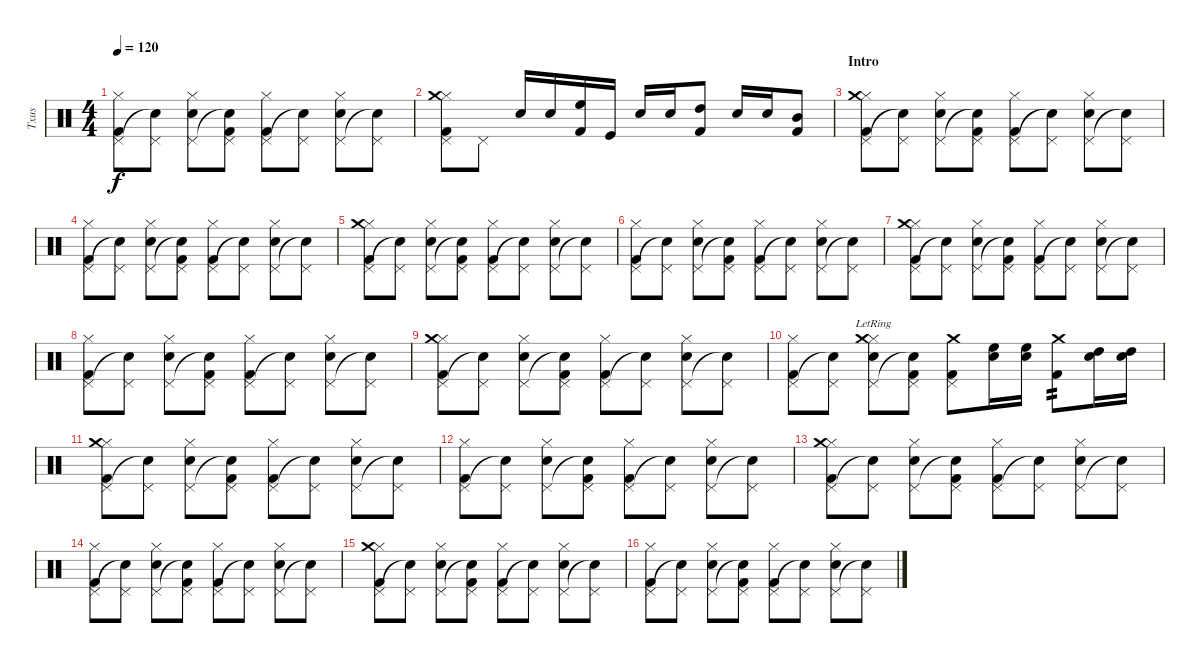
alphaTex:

\track ("Txus" "Txus") {instrument percussion}
\staff {score}
\articulation defaults
\ts (4 4)
\tempo 120
\clef neutral
\ks c
("Hi-Hat (closed)" "Pedal Hi-Hat (hit)" "Kick (hit) 2").8{dy f} ("Pedal Hi-Hat (hit)" "Snare (hit)"{t}).8 ("Hi-Hat (closed)" "Pedal Hi-Hat (hit)" "Snare (hit) 2").8 ("Pedal Hi-Hat (hit)" "Snare (hit)"{t} "Kick (hit) 2").8 ("Hi-Hat (closed)" "Pedal Hi-Hat (hit)" "Kick (hit) 2").8 ("Pedal Hi-Hat (hit)" "Snare (hit)"{t}).8 ("Hi-Hat (closed)" "Pedal Hi-Hat (hit)" "Snare (hit) 2").8 ("Pedal Hi-Hat (hit)" "Snare (hit) 2"{t}).8 |
("Hi-Hat (closed)" "Pedal Hi-Hat (hit)" "Crash medium (hit)" "Kick (hit) 2").8 "Pedal Hi-Hat (hit)".8 "Snare (hit) 2".16 "Snare (hit) 2".16 ("Kick (hit) 2" "High Floor Tom (hit)").16 "Kick (hit)".16 "Snare (hit) 2".16 "Snare (hit) 2".16 ("Kick (hit) 2" "High Tom (hit)").8 "Snare (hit) 2".16 "Snare (hit) 2".16 ("Kick (hit) 2" "Mid Tom (hit)").8 |
\section ("" "Intro")
("Hi-Hat (closed)" "Pedal Hi-Hat (hit)" "Crash medium (hit)" "Kick (hit) 2").8 ("Pedal Hi-Hat (hit)" "Snare (hit)"{t}).8 ("Hi-Hat (closed)" "Pedal Hi-Hat (hit)" "Snare (hit) 2").8 ("Pedal Hi-Hat (hit)" "Snare (hit)"{t} "Kick (hit) 2").8 ("Hi-Hat (closed)" "Pedal Hi-Hat (hit)" "Kick (hit) 2").8 ("Pedal Hi-Hat (hit)" "Snare (hit)"{t}).8 ("Hi-Hat (closed)" "Pedal Hi-Hat (hit)" "Snare (hit) 2").8 ("Pedal Hi-Hat (hit)" "Snare (hit) 2"{t}).8 |
("Hi-Hat (closed)" "Pedal Hi-Hat (hit)" "Kick (hit) 2").8 ("Pedal Hi-Hat (hit)" "Snare (hit)"{t}).8 ("Hi-Hat (closed)" "Pedal Hi-Hat (hit)" "Snare (hit) 2").8 ("Pedal Hi-Hat (hit)" "Snare (hit)"{t} "Kick (hit) 2").8 ("Hi-Hat (closed)" "Pedal Hi-Hat (hit)" "Kick (hit) 2").8 ("Pedal Hi-Hat (hit)" "Snare (hit)"{t}).8 ("Hi-Hat (closed)" "Pedal Hi-Hat (hit)" "Snare (hit) 2").8 ("Pedal Hi-Hat (hit)" "Snare (hit) 2"{t}).8 |
("Hi-Hat (closed)" "Pedal Hi-Hat (hit)" "Crash medium (hit)" "Kick (hit) 2").8 ("Pedal Hi-Hat (hit)" "Snare (hit)"{t}).8 ("Hi-Hat (closed)" "Pedal Hi-Hat (hit)" "Snare (hit) 2").8 ("Pedal Hi-Hat (hit)" "Snare (hit)"{t} "Kick (hit) 2").8 ("Hi-Hat (closed)" "Pedal Hi-Hat (hit)" "Kick (hit) 2").8 ("Pedal Hi-Hat (hit)" "Snare (hit)"{t}).8 ("Hi-Hat (closed)" "Pedal Hi-Hat (hit)" "Snare (hit) 2").8 ("Pedal Hi-Hat (hit)" "Snare (hit) 2"{t}).8 |
("Hi-Hat (closed)" "Pedal Hi-Hat (hit)" "Kick (hit) 2").8 ("Pedal Hi-Hat (hit)" "Snare (hit)"{t}).8 ("Hi-Hat (closed)" "Pedal Hi-Hat (hit)" "Snare (hit) 2").8 ("Pedal Hi-Hat (hit)" "Snare (hit)"{t} "Kick (hit) 2").8 ("Hi-Hat (closed)" "Pedal Hi-Hat (hit)" "Kick (hit) 2").8 ("Pedal Hi-Hat (hit)" "Snare (hit)"{t}).8 ("Hi-Hat (closed)" "Pedal Hi-Hat (hit)" "Snare (hit) 2").8 ("Pedal Hi-Hat (hit)" "Snare (hit) 2"{t}).8 |
("Hi-Hat (closed)" "Pedal Hi-Hat (hit)" "Crash medium (hit)" "Kick (hit) 2").8 ("Pedal Hi-Hat (hit)" "Snare (hit)"{t}).8 ("Hi-Hat (closed)" "Pedal Hi-Hat (hit)" "Snare (hit) 2").8 ("Pedal Hi-Hat (hit)" "Snare (hit)"{t} "Kick (hit) 2").8 ("Hi-Hat (closed)" "Pedal Hi-Hat (hit)" "Kick (hit) 2").8 ("Pedal Hi-Hat (hit)" "Snare (hit)"{t}).8 ("Hi-Hat (closed)" "Pedal Hi-Hat (hit)" "Snare (hit) 2").8 ("Pedal Hi-Hat (hit)" "Snare (hit) 2"{t}).8 |
("Hi-Hat (closed)" "Pedal Hi-Hat (hit)" "Kick (hit) 2").8 ("Pedal Hi-Hat (hit)" "Snare (hit)"{t}).8 ("Hi-Hat (closed)" "Pedal Hi-Hat (hit)" "Snare (hit) 2").8 ("Pedal Hi-Hat (hit)" "Snare (hit)"{t} "Kick (hit) 2").8 ("Hi-Hat (closed)" "Pedal Hi-Hat (hit)" "Kick (hit) 2").8 ("Pedal Hi-Hat (hit)" "Snare (hit)"{t}).8 ("Hi-Hat (closed)" "Pedal Hi-Hat (hit)" "Snare (hit) 2").8 ("Pedal Hi-Hat (hit)" "Snare (hit) 2"{t}).8 |
("Hi-Hat (closed)" "Pedal Hi-Hat (hit)" "Crash medium (hit)" "Kick (hit) 2").8 ("Pedal Hi-Hat (hit)" "Snare (hit)"{t}).8 ("Hi-Hat (closed)" "Pedal Hi-Hat (hit)" "Snare (hit) 2").8 ("Pedal Hi-Hat (hit)" "Snare (hit)"{t} "Kick (hit) 2").8 ("Hi-Hat (closed)" "Pedal Hi-Hat (hit)" "Kick (hit) 2").8 ("Pedal Hi-Hat (hit)" "Snare (hit)"{t}).8 ("Hi-Hat (closed)" "Pedal Hi-Hat (hit)" "Snare (hit) 2").8 ("Pedal Hi-Hat (hit)" "Snare (hit) 2"{t}).8 |
("Hi-Hat (closed)" "Pedal Hi-Hat (hit)" "Kick (hit) 2").8 ("Pedal Hi-Hat (hit)" "Snare (hit)"{t}).8 ("Hi-Hat (closed)" "Pedal Hi-Hat (hit)" "Snare (hit) 2" "Crash medium (hit)"{lr}).8 ("Pedal Hi-Hat (hit)" "Snare (hit)"{t} "Kick (hit) 2").8 ("Crash medium (hit)" "Pedal Hi-Hat (hit)" "Kick (hit) 2").8 ("High Floor Tom (hit)" "Snare (hit) 2").16 ("High Floor Tom (hit)" "Snare (hit) 2").16 ("Crash medium (hit)" "Kick (hit) 2").8{tp 2} ("High Tom (hit)" "Snare (hit) 2").16 ("High Tom (hit)" "Snare (hit) 2").16 |
("Hi-Hat (closed)" "Pedal Hi-Hat (hit)" "Crash medium (hit)" "Kick (hit) 2").8 ("Pedal Hi-Hat (hit)" "Snare (hit)"{t}).8 ("Hi-Hat (closed)" "Pedal Hi-Hat (hit)" "Snare (hit) 2").8 ("Pedal Hi-Hat (hit)" "Snare (hit)"{t} "Kick (hit) 2").8 ("Hi-Hat (closed)" "Pedal Hi-Hat (hit)" "Kick (hit) 2").8 ("Pedal Hi-Hat (hit)" "Snare (hit)"{t}).8 ("Hi-Hat (closed)" "Pedal Hi-Hat (hit)" "Snare (hit) 2").8 ("Pedal Hi-Hat (hit)" "Snare (hit) 2"{t}).8 |
("Hi-Hat (closed)" "Pedal Hi-Hat (hit)" "Kick (hit) 2").8 ("Pedal Hi-Hat (hit)" "Snare (hit)"{t}).8 ("Hi-Hat (closed)" "Pedal Hi-Hat (hit)" "Snare (hit) 2").8 ("Pedal Hi-Hat (hit)" "Snare (hit)"{t} "Kick (hit) 2").8 ("Hi-Hat (closed)" "Pedal Hi-Hat (hit)" "Kick (hit) 2").8 ("Pedal Hi-Hat (hit)" "Snare (hit)"{t}).8 ("Hi-Hat (closed)" "Pedal Hi-Hat (hit)" "Snare (hit) 2").8 ("Pedal Hi-Hat (hit)" "Snare (hit) 2"{t}).8 |
("Hi-Hat (closed)" "Pedal Hi-Hat (hit)" "Crash medium (hit)" "Kick (hit) 2").8 ("Pedal Hi-Hat (hit)" "Snare (hit)"{t}).8 ("Hi-Hat (closed)" "Pedal Hi-Hat (hit)" "Snare (hit) 2").8 ("Pedal Hi-Hat (hit)" "Snare (hit)"{t} "Kick (hit) 2").8 ("Hi-Hat (closed)" "Pedal Hi-Hat (hit)" "Kick (hit) 2").8 ("Pedal Hi-Hat (hit)" "Snare (hit)"{t}).8 ("Hi-Hat (closed)" "Pedal Hi-Hat (hit)" "Snare (hit) 2").8 ("Pedal Hi-Hat (hit)" "Snare (hit) 2"{t}).8 |
("Hi-Hat (closed)" "Pedal Hi-Hat (hit)" "Kick (hit) 2").8 ("Pedal Hi-Hat (hit)" "Snare (hit)"{t}).8 ("Hi-Hat (closed)" "Pedal Hi-Hat (hit)" "Snare (hit) 2").8 ("Pedal Hi-Hat (hit)" "Snare (hit)"{t} "Kick (hit) 2").8 ("Hi-Hat (closed)" "Pedal Hi-Hat (hit)" "Kick (hit) 2").8 ("Pedal Hi-Hat (hit)" "Snare (hit)"{t}).8 ("Hi-Hat (closed)" "Pedal Hi-Hat (hit)" "Snare (hit) 2").8 ("Pedal Hi-Hat (hit)" "Snare (hit) 2"{t}).8 |
("Hi-Hat (closed)" "Pedal Hi-Hat (hit)" "Crash medium (hit)" "Kick (hit) 2").8 ("Pedal Hi-Hat (hit)" "Snare (hit)"{t}).8 ("Hi-Hat (closed)" "Pedal Hi-Hat (hit)" "Snare (hit) 2").8 ("Pedal Hi-Hat (hit)" "Snare (hit)"{t} "Kick (hit) 2").8 ("Hi-Hat (closed)" "Pedal Hi-Hat (hit)" "Kick (hit) 2").8 ("Pedal Hi-Hat (hit)" "Snare (hit)"{t}).8 ("Hi-Hat (closed)" "Pedal Hi-Hat (hit)" "Snare (hit) 2").8 ("Pedal Hi-Hat (hit)" "Snare (hit) 2"{t}).8 |
("Hi-Hat (closed)" "Pedal Hi-Hat (hit)" "Kick (hit) 2").8 ("Pedal Hi-Hat (hit)" "Snare (hit)"{t}).8 ("Hi-Hat (closed)" "Pedal Hi-Hat (hit)" "Snare (hit) 2").8 ("Pedal Hi-Hat (hit)" "Snare (hit)"{t} "Kick (hit) 2").8 ("Hi-Hat (closed)" "Pedal Hi-Hat (hit)" "Kick (hit) 2").8 ("Pedal Hi-Hat (hit)" "Snare (hit)"{t}).8 ("Hi-Hat (closed)" "Pedal Hi-Hat (hit)" "Snare (hit) 2").8 ("Pedal Hi-Hat (hit)" "Snare (hit) 2"{t}).8
